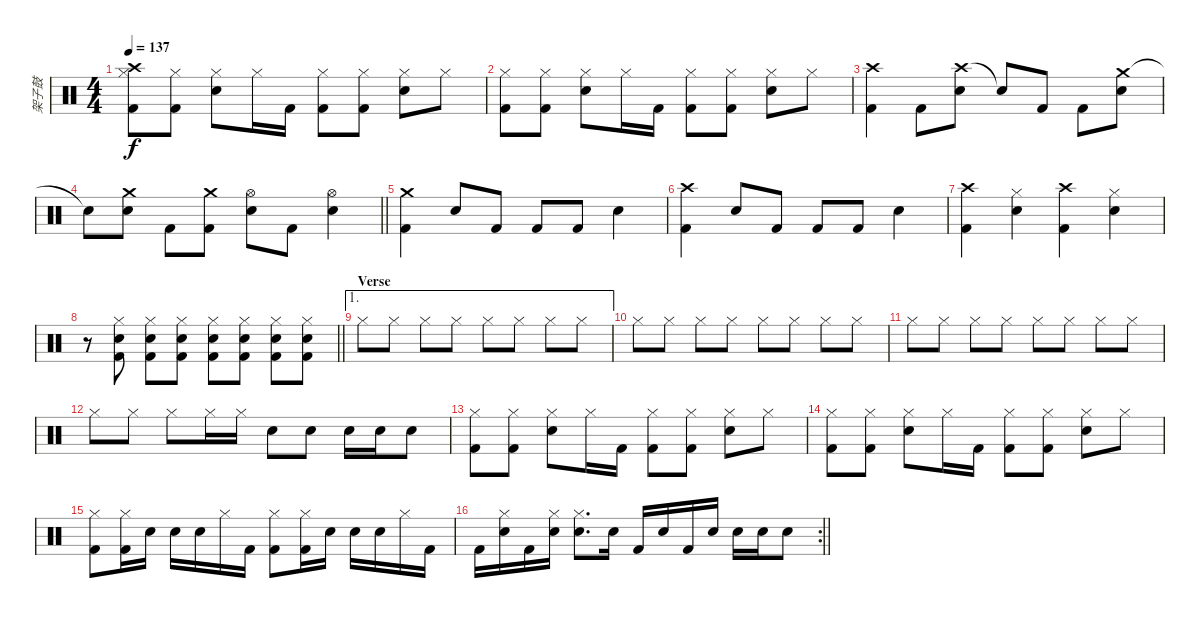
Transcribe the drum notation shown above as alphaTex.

\track ("架子鼓" "架子鼓") {instrument percussion}
\staff {score}
\articulation defaults
\ts (4 4)
\tempo 137
\clef neutral
\ks c
("Hi-Hat (closed)" "Crash high (hit)" "Kick (hit) 2").8{dy f} ("Hi-Hat (closed)" "Kick (hit) 2").8 ("Hi-Hat (closed)" "Snare (hit) 2").8 "Hi-Hat (closed)".16 "Kick (hit) 2".16 ("Hi-Hat (closed)" "Kick (hit) 2").8 ("Hi-Hat (closed)" "Kick (hit) 2").8 ("Hi-Hat (closed)" "Snare (hit) 2").8 "Hi-Hat (closed)".8 |
("Hi-Hat (closed)" "Kick (hit) 2").8 ("Hi-Hat (closed)" "Kick (hit) 2").8 ("Hi-Hat (closed)" "Snare (hit) 2").8 "Hi-Hat (closed)".16 "Kick (hit) 2".16 ("Hi-Hat (closed)" "Kick (hit) 2").8 ("Hi-Hat (closed)" "Kick (hit) 2").8 ("Hi-Hat (closed)" "Snare (hit) 2").8 "Hi-Hat (closed)".8 |
("Crash high (hit)" "Kick (hit) 2").4 "Kick (hit) 2".8 ("Crash high (hit)" "Snare (hit) 2").8 "Snare (hit)"{t}.8 "Kick (hit) 2".8 "Kick (hit) 2".8 ("Crash medium (hit)" "Snare (hit) 2").8 |
\barLineRight lightlight "Snare (hit)"{t}.8
("Crash medium (hit)" "Snare (hit) 2").8 "Kick (hit) 2".8 ("Crash medium (hit)" "Kick (hit) 2").8 ("Hi-Hat (open)" "Snare (hit) 2").8 "Kick (hit) 2".8 ("Hi-Hat (open)" "Snare (hit) 2").4 |
("Crash medium (hit)" "Kick (hit) 2").4 "Snare (hit) 2".8 "Kick (hit) 2".8 "Kick (hit) 2".8 "Kick (hit) 2".8 "Snare (hit) 2".4 |
("Crash high (hit)" "Kick (hit) 2").4 "Snare (hit) 2".8 "Kick (hit) 2".8 "Kick (hit) 2".8 "Kick (hit) 2".8 "Snare (hit) 2".4 |
("Crash high (hit)" "Kick (hit) 2").4 ("Hi-Hat (closed)" "Snare (hit) 2").4 ("Crash high (hit)" "Kick (hit) 2").4 ("Hi-Hat (closed)" "Snare (hit) 2").4 |
\barLineRight lightlight
r.8 ("Hi-Hat (closed)" "Snare (hit) 2" "Kick (hit) 2").8 ("Hi-Hat (closed)" "Snare (hit) 2" "Kick (hit) 2").8 ("Hi-Hat (closed)" "Snare (hit) 2" "Kick (hit) 2").8 ("Hi-Hat (closed)" "Snare (hit) 2" "Kick (hit) 2").8 ("Hi-Hat (closed)" "Snare (hit) 2" "Kick (hit) 2").8 ("Hi-Hat (closed)" "Snare (hit) 2" "Kick (hit) 2").8 ("Hi-Hat (closed)" "Snare (hit) 2" "Kick (hit) 2").8 |
\ae 1
\section ("" "Verse")
"Hi-Hat (closed)".8 "Hi-Hat (closed)".8 "Hi-Hat (closed)".8 "Hi-Hat (closed)".8 "Hi-Hat (closed)".8 "Hi-Hat (closed)".8 "Hi-Hat (closed)".8 "Hi-Hat (closed)".8 |
"Hi-Hat (closed)".8 "Hi-Hat (closed)".8 "Hi-Hat (closed)".8 "Hi-Hat (closed)".8 "Hi-Hat (closed)".8 "Hi-Hat (closed)".8 "Hi-Hat (closed)".8 "Hi-Hat (closed)".8 |
"Hi-Hat (closed)".8 "Hi-Hat (closed)".8 "Hi-Hat (closed)".8 "Hi-Hat (closed)".8 "Hi-Hat (closed)".8 "Hi-Hat (closed)".8 "Hi-Hat (closed)".8 "Hi-Hat (closed)".8 |
"Hi-Hat (closed)".8 "Hi-Hat (closed)".8 "Hi-Hat (closed)".8 "Hi-Hat (closed)".16 "Hi-Hat (closed)".16 "Snare (hit) 2".8 "Snare (hit) 2".8 "Snare (hit) 2".16 "Snare (hit) 2".16 "Snare (hit) 2".8 |
("Hi-Hat (closed)" "Kick (hit) 2").8 ("Hi-Hat (closed)" "Kick (hit) 2").8 ("Hi-Hat (closed)" "Snare (hit) 2").8 "Hi-Hat (closed)".16 "Kick (hit) 2".16 ("Hi-Hat (closed)" "Kick (hit) 2").8 ("Hi-Hat (closed)" "Kick (hit) 2").8 ("Hi-Hat (closed)" "Snare (hit) 2").8 "Hi-Hat (closed)".8 |
("Hi-Hat (closed)" "Kick (hit) 2").8 ("Hi-Hat (closed)" "Kick (hit) 2").8 ("Hi-Hat (closed)" "Snare (hit) 2").8 "Hi-Hat (closed)".16 "Kick (hit) 2".16 ("Hi-Hat (closed)" "Kick (hit) 2").8 ("Hi-Hat (closed)" "Kick (hit) 2").8 ("Hi-Hat (closed)" "Snare (hit) 2").8 "Hi-Hat (closed)".8 |
("Hi-Hat (closed)" "Kick (hit) 2").8 ("Hi-Hat (closed)" "Kick (hit) 2").16 "Snare (hit) 2".16 "Snare (hit) 2".16 "Snare (hit) 2".16 "Hi-Hat (closed)".16 "Kick (hit) 2".16 ("Hi-Hat (closed)" "Kick (hit) 2").8 ("Hi-Hat (closed)" "Kick (hit) 2").16 "Snare (hit) 2".16 "Snare (hit) 2".16 "Snare (hit) 2".16 "Hi-Hat (closed)".16 "Kick (hit) 2".16 |
\rc 2
\barLineRight lightlight "Kick (hit) 2".16
("Hi-Hat (closed)" "Snare (hit) 2").16 "Kick (hit) 2".16 ("Hi-Hat (closed)" "Snare (hit) 2").16 ("Hi-Hat (closed)" "Snare (hit) 2").8{d} "Snare (hit) 2".16 "Kick (hit) 2".16 "Snare (hit) 2".16 "Kick (hit) 2".16 "Snare (hit) 2".16 "Snare (hit) 2".16 "Snare (hit) 2".16 "Snare (hit) 2".8
